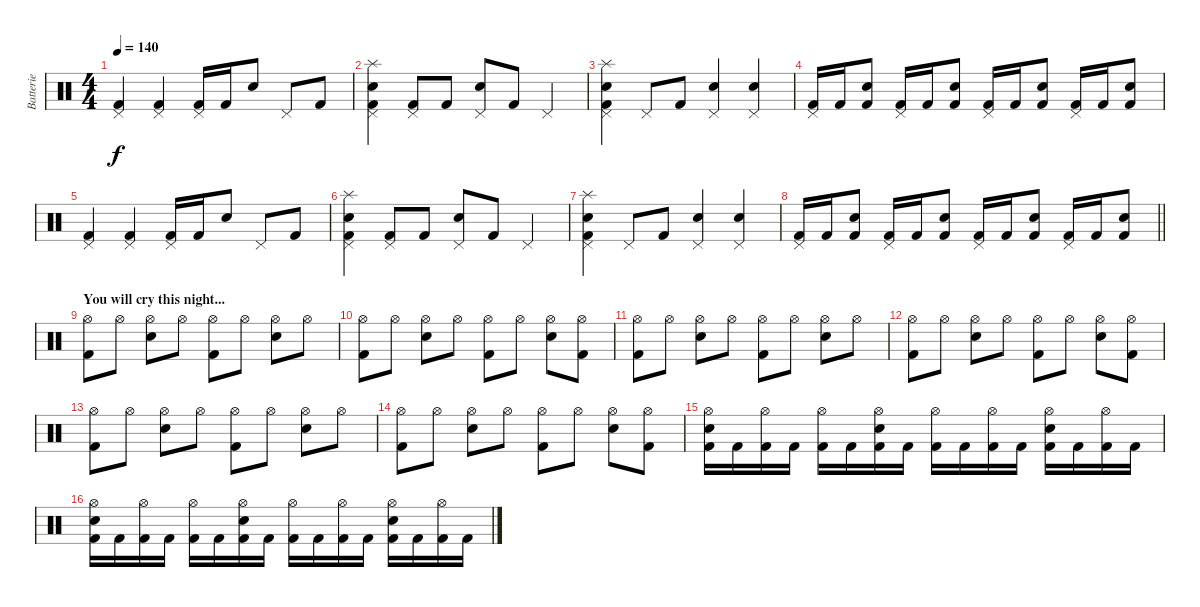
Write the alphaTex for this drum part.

\track ("Batterie" "Batterie") {instrument percussion}
\staff {score}
\articulation defaults
\ts (4 4)
\tempo 140
\clef neutral
\ks c
("Pedal Hi-Hat (hit)" "Kick (hit) 2").4{dy f} ("Pedal Hi-Hat (hit)" "Kick (hit) 2").4 ("Pedal Hi-Hat (hit)" "Kick (hit) 2").16 "Kick (hit) 2".16 "Electric Snare (hit)".8 "Pedal Hi-Hat (hit)".8 "Kick (hit) 2".8 |
("Pedal Hi-Hat (hit)" "Splash (hit)" "Electric Snare (hit)" "Kick (hit) 2").4 ("Pedal Hi-Hat (hit)" "Kick (hit) 2").8 "Kick (hit) 2".8 ("Pedal Hi-Hat (hit)" "Electric Snare (hit)").8 "Kick (hit) 2".8 "Pedal Hi-Hat (hit)".4 |
("Pedal Hi-Hat (hit)" "Splash (hit)" "Electric Snare (hit)" "Kick (hit) 2").4 "Pedal Hi-Hat (hit)".8 "Kick (hit) 2".8 ("Pedal Hi-Hat (hit)" "Electric Snare (hit)").4 ("Pedal Hi-Hat (hit)" "Electric Snare (hit)").4 |
("Pedal Hi-Hat (hit)" "Kick (hit) 2").16 "Kick (hit) 2".16 ("Electric Snare (hit)" "Kick (hit) 2").8 ("Pedal Hi-Hat (hit)" "Kick (hit) 2").16 "Kick (hit) 2".16 ("Electric Snare (hit)" "Kick (hit) 2").8 ("Pedal Hi-Hat (hit)" "Kick (hit) 2").16 "Kick (hit) 2".16 ("Electric Snare (hit)" "Kick (hit) 2").8 ("Pedal Hi-Hat (hit)" "Kick (hit) 2").16 "Kick (hit) 2".16 ("Electric Snare (hit)" "Kick (hit) 2").8 |
("Pedal Hi-Hat (hit)" "Kick (hit) 2").4 ("Pedal Hi-Hat (hit)" "Kick (hit) 2").4 ("Pedal Hi-Hat (hit)" "Kick (hit) 2").16 "Kick (hit) 2".16 "Electric Snare (hit)".8 "Pedal Hi-Hat (hit)".8 "Kick (hit) 2".8 |
("Pedal Hi-Hat (hit)" "Splash (hit)" "Electric Snare (hit)" "Kick (hit) 2").4 ("Pedal Hi-Hat (hit)" "Kick (hit) 2").8 "Kick (hit) 2".8 ("Pedal Hi-Hat (hit)" "Electric Snare (hit)").8 "Kick (hit) 2".8 "Pedal Hi-Hat (hit)".4 |
("Pedal Hi-Hat (hit)" "Splash (hit)" "Electric Snare (hit)" "Kick (hit) 2").4 "Pedal Hi-Hat (hit)".8 "Kick (hit) 2".8 ("Pedal Hi-Hat (hit)" "Electric Snare (hit)").4 ("Pedal Hi-Hat (hit)" "Electric Snare (hit)").4 |
\barLineRight lightlight
("Pedal Hi-Hat (hit)" "Kick (hit) 2").16 "Kick (hit) 2".16 ("Electric Snare (hit)" "Kick (hit) 2").8 ("Pedal Hi-Hat (hit)" "Kick (hit) 2").16 "Kick (hit) 2".16 ("Electric Snare (hit)" "Kick (hit) 2").8 ("Pedal Hi-Hat (hit)" "Kick (hit) 2").16 "Kick (hit) 2".16 ("Electric Snare (hit)" "Kick (hit) 2").8 ("Pedal Hi-Hat (hit)" "Kick (hit) 2").16 "Kick (hit) 2".16 ("Electric Snare (hit)" "Kick (hit) 2").8 |
\section ("" "You will cry this night...")
("Hi-Hat (open)" "Kick (hit) 2").8 "Hi-Hat (open)".8 ("Hi-Hat (open)" "Electric Snare (hit)").8 "Hi-Hat (open)".8 ("Hi-Hat (open)" "Kick (hit) 2").8 "Hi-Hat (open)".8 ("Hi-Hat (open)" "Electric Snare (hit)").8 "Hi-Hat (open)".8 |
("Hi-Hat (open)" "Kick (hit) 2").8 "Hi-Hat (open)".8 ("Hi-Hat (open)" "Electric Snare (hit)").8 "Hi-Hat (open)".8 ("Hi-Hat (open)" "Kick (hit) 2").8 "Hi-Hat (open)".8 ("Hi-Hat (open)" "Electric Snare (hit)").8 ("Hi-Hat (open)" "Kick (hit) 2").8 |
("Hi-Hat (open)" "Kick (hit) 2").8 "Hi-Hat (open)".8 ("Hi-Hat (open)" "Electric Snare (hit)").8 "Hi-Hat (open)".8 ("Hi-Hat (open)" "Kick (hit) 2").8 "Hi-Hat (open)".8 ("Hi-Hat (open)" "Electric Snare (hit)").8 "Hi-Hat (open)".8 |
("Hi-Hat (open)" "Kick (hit) 2").8 "Hi-Hat (open)".8 ("Hi-Hat (open)" "Electric Snare (hit)").8 "Hi-Hat (open)".8 ("Hi-Hat (open)" "Kick (hit) 2").8 "Hi-Hat (open)".8 ("Hi-Hat (open)" "Electric Snare (hit)").8 ("Hi-Hat (open)" "Kick (hit) 2").8 |
("Hi-Hat (open)" "Kick (hit) 2").8 "Hi-Hat (open)".8 ("Hi-Hat (open)" "Electric Snare (hit)").8 "Hi-Hat (open)".8 ("Hi-Hat (open)" "Kick (hit) 2").8 "Hi-Hat (open)".8 ("Hi-Hat (open)" "Electric Snare (hit)").8 "Hi-Hat (open)".8 |
("Hi-Hat (open)" "Kick (hit) 2").8 "Hi-Hat (open)".8 ("Hi-Hat (open)" "Electric Snare (hit)").8 "Hi-Hat (open)".8 ("Hi-Hat (open)" "Kick (hit) 2").8 "Hi-Hat (open)".8 ("Hi-Hat (open)" "Electric Snare (hit)").8 ("Hi-Hat (open)" "Kick (hit) 2").8 |
("Hi-Hat (open)" "Electric Snare (hit)" "Kick (hit) 2").16 "Kick (hit) 2".16 ("Hi-Hat (open)" "Kick (hit) 2").16 "Kick (hit) 2".16 ("Hi-Hat (open)" "Kick (hit) 2").16 "Kick (hit) 2".16 ("Hi-Hat (open)" "Electric Snare (hit)" "Kick (hit) 2").16 "Kick (hit) 2".16 ("Hi-Hat (open)" "Kick (hit) 2").16 "Kick (hit) 2".16 ("Hi-Hat (open)" "Kick (hit) 2").16 "Kick (hit) 2".16 ("Hi-Hat (open)" "Electric Snare (hit)" "Kick (hit) 2").16 "Kick (hit) 2".16 ("Hi-Hat (open)" "Kick (hit) 2").16 "Kick (hit) 2".16 |
("Hi-Hat (open)" "Electric Snare (hit)" "Kick (hit) 2").16 "Kick (hit) 2".16 ("Hi-Hat (open)" "Kick (hit) 2").16 "Kick (hit) 2".16 ("Hi-Hat (open)" "Kick (hit) 2").16 "Kick (hit) 2".16 ("Hi-Hat (open)" "Electric Snare (hit)" "Kick (hit) 2").16 "Kick (hit) 2".16 ("Hi-Hat (open)" "Kick (hit) 2").16 "Kick (hit) 2".16 ("Hi-Hat (open)" "Kick (hit) 2").16 "Kick (hit) 2".16 ("Hi-Hat (open)" "Electric Snare (hit)" "Kick (hit) 2").16 "Kick (hit) 2".16 ("Hi-Hat (open)" "Kick (hit) 2").16 "Kick (hit) 2".16
